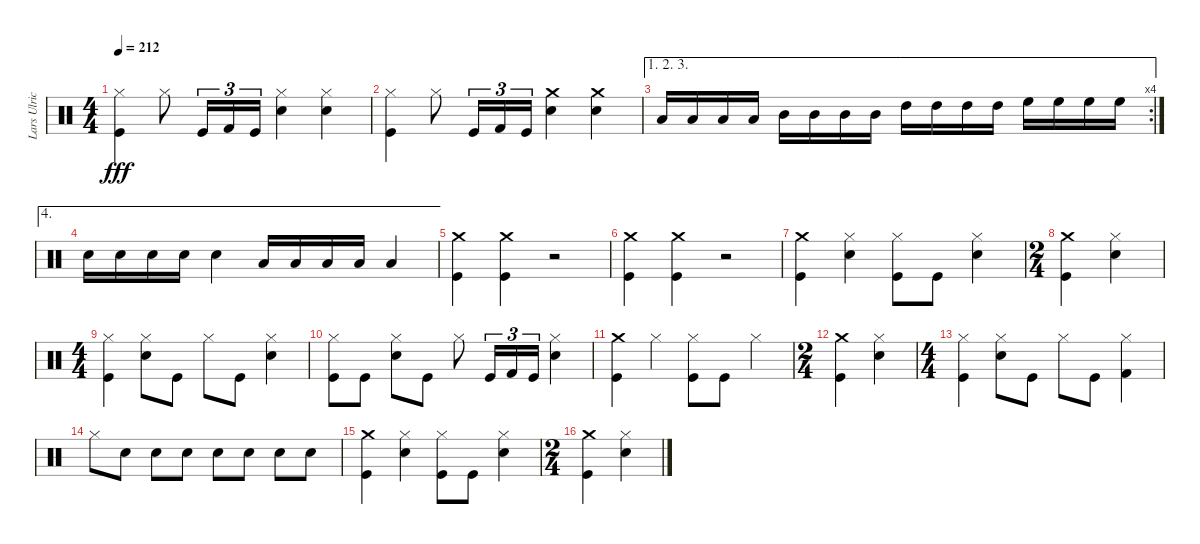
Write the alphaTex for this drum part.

\track ("Lars Ulrich" "Lars Ulric") {instrument percussion}
\staff {score}
\articulation defaults
\ts (4 4)
\tempo 212
\clef neutral
\ks c
("Kick (hit)" "Hi-Hat (closed)").4{dy fff} "Hi-Hat (closed)".8 "Kick (hit)".16{tu (3 2)} "Kick (hit) 2".16{tu (3 2)} "Kick (hit)".16{tu (3 2)} ("Snare (hit) 2" "Hi-Hat (closed)").4 ("Snare (hit) 2" "Hi-Hat (closed)").4 |
("Kick (hit)" "Hi-Hat (closed)").4 "Hi-Hat (closed)".8 "Kick (hit)".16{tu (3 2)} "Kick (hit) 2".16{tu (3 2)} "Kick (hit)".16{tu (3 2)} ("Crash medium (hit)" "Snare (hit) 2").4 ("Crash medium (hit)" "Snare (hit) 2").4 |
\ae (1 2 3)
\rc 4 "Low Tom (hit)".16 "Low Tom (hit)".16 "Low Tom (hit)".16 "Low Tom (hit)".16 "Mid Tom (hit)".16 "Mid Tom (hit)".16 "Mid Tom (hit)".16 "Mid Tom (hit)".16 "High Tom (hit)".16 "High Tom (hit)".16 "High Tom (hit)".16 "High Tom (hit)".16 "High Floor Tom (hit)".16 "High Floor Tom (hit)".16 "High Floor Tom (hit)".16 "High Floor Tom (hit)".16
|
\ae 4 "Snare (hit) 2".16 "Snare (hit) 2".16 "Snare (hit) 2".16 "Snare (hit) 2".16 "Snare (hit) 2".4 "Low Tom (hit)".16 "Low Tom (hit)".16 "Low Tom (hit)".16 "Low Tom (hit)".16 "Low Tom (hit)".4
|
("Kick (hit)" "Crash medium (hit)").4 ("Kick (hit)" "Crash medium (hit)").4 r.2 |
("Kick (hit)" "Crash medium (hit)").4 ("Crash medium (hit)" "Kick (hit)").4 r.2 |
("Kick (hit)" "Crash medium (hit)").4 ("Snare (hit) 2" "Hi-Hat (closed)").4 ("Kick (hit)" "Hi-Hat (closed)").8 "Kick (hit)".8 ("Snare (hit) 2" "Hi-Hat (closed)").4 |
\ts (2 4)
("Kick (hit)" "Crash medium (hit)").4 ("Hi-Hat (closed)" "Snare (hit) 2").4 |
\ts (4 4)
("Kick (hit)" "Hi-Hat (closed)").4 ("Snare (hit) 2" "Hi-Hat (closed)").8 "Kick (hit)".8 "Hi-Hat (closed)".8 "Kick (hit)".8 ("Snare (hit) 2" "Hi-Hat (closed)").4 |
("Kick (hit)" "Hi-Hat (closed)").8 "Kick (hit)".8 ("Hi-Hat (closed)" "Snare (hit) 2").8 "Kick (hit)".8 "Hi-Hat (closed)".8 "Kick (hit)".16{tu (3 2)} "Kick (hit) 2".16{tu (3 2)} "Kick (hit)".16{tu (3 2)} ("Snare (hit) 2" "Hi-Hat (closed)").4 |
("Kick (hit)" "Crash medium (hit)").4 "Hi-Hat (closed)".4 ("Hi-Hat (closed)" "Kick (hit)").8 "Kick (hit)".8 "Hi-Hat (closed)".4 |
\ts (2 4)
("Kick (hit)" "Crash medium (hit)").4 ("Snare (hit) 2" "Hi-Hat (closed)").4 |
\ts (4 4)
("Kick (hit)" "Hi-Hat (closed)").4 ("Snare (hit) 2" "Hi-Hat (closed)").8 "Kick (hit)".8 "Hi-Hat (closed)".8 "Kick (hit)".8 ("Kick (hit) 2" "Hi-Hat (closed)").4 |
"Hi-Hat (closed)".8 "Snare (hit) 2".8 "Snare (hit) 2".8 "Snare (hit) 2".8 "Snare (hit) 2".8 "Snare (hit) 2".8 "Snare (hit) 2".8 "Snare (hit) 2".8 |
("Crash medium (hit)" "Kick (hit)").4 ("Hi-Hat (closed)" "Snare (hit) 2").4 ("Hi-Hat (closed)" "Kick (hit)").8 "Kick (hit)".8 ("Snare (hit) 2" "Hi-Hat (closed)").4 |
\ts (2 4)
("Kick (hit)" "Crash medium (hit)").4 ("Snare (hit) 2" "Hi-Hat (closed)").4
